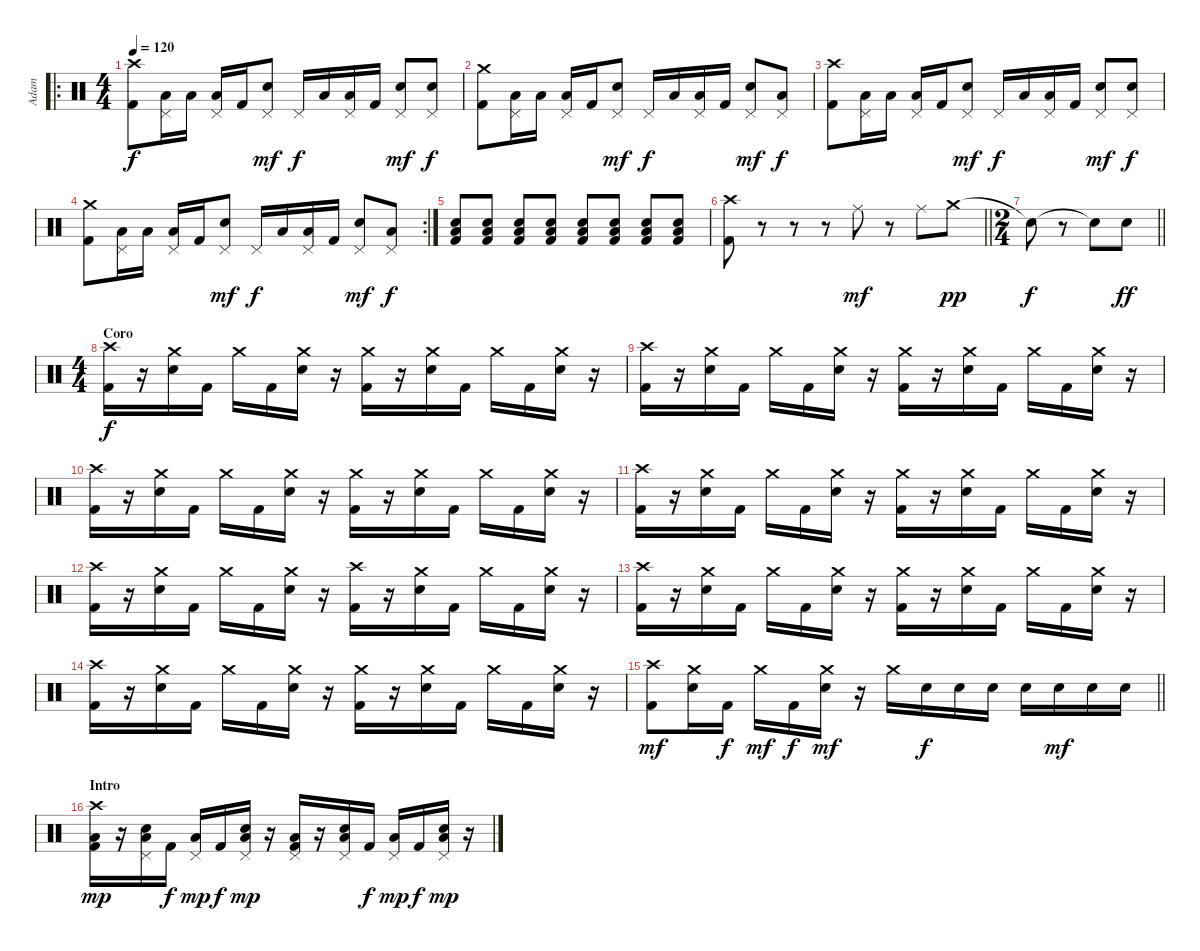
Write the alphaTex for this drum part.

\track ("Adam" "Adam") {instrument percussion}
\staff {score}
\articulation defaults
\ro
\ts (4 4)
\tempo 120
\clef neutral
\ks c
("Crash high (hit)" "Kick (hit) 2").8{dy f} ("Pedal Hi-Hat (hit)" "Low Floor Tom (hit)").16 "Low Floor Tom (hit)".16 ("Pedal Hi-Hat (hit)" "Low Tom (hit)").16 "Kick (hit) 2".16 ("Pedal Hi-Hat (hit)" "Snare (hit) 2").8{dy mf} "Pedal Hi-Hat (hit)".16{dy f} "Low Floor Tom (hit)".16 ("Pedal Hi-Hat (hit)" "Low Tom (hit)").16 "Kick (hit) 2".16 ("Pedal Hi-Hat (hit)" "Snare (hit) 2").8{dy mf} ("Pedal Hi-Hat (hit)" "Snare (hit) 2").8{dy f} |
("Crash medium (hit)" "Kick (hit) 2").8 ("Pedal Hi-Hat (hit)" "Low Floor Tom (hit)").16 "Low Floor Tom (hit)".16 ("Pedal Hi-Hat (hit)" "Low Tom (hit)").16 "Kick (hit) 2".16 ("Pedal Hi-Hat (hit)" "Snare (hit) 2").8{dy mf} "Pedal Hi-Hat (hit)".16{dy f} "Low Floor Tom (hit)".16 ("Pedal Hi-Hat (hit)" "Low Tom (hit)").16 "Kick (hit) 2".16 ("Pedal Hi-Hat (hit)" "Snare (hit) 2").8{dy mf} ("Pedal Hi-Hat (hit)" "Low Floor Tom (hit)").8{dy f} |
("Crash high (hit)" "Kick (hit) 2").8 ("Pedal Hi-Hat (hit)" "Low Floor Tom (hit)").16 "Low Floor Tom (hit)".16 ("Pedal Hi-Hat (hit)" "Low Tom (hit)").16 "Kick (hit) 2".16 ("Pedal Hi-Hat (hit)" "Snare (hit) 2").8{dy mf} "Pedal Hi-Hat (hit)".16{dy f} "Low Floor Tom (hit)".16 ("Pedal Hi-Hat (hit)" "Low Tom (hit)").16 "Kick (hit) 2".16 ("Pedal Hi-Hat (hit)" "Snare (hit) 2").8{dy mf} ("Pedal Hi-Hat (hit)" "Snare (hit) 2").8{dy f} |
\rc 2
("Crash medium (hit)" "Kick (hit) 2").8 ("Pedal Hi-Hat (hit)" "Low Floor Tom (hit)").16 "Low Floor Tom (hit)".16 ("Pedal Hi-Hat (hit)" "Low Tom (hit)").16 "Kick (hit) 2".16 ("Pedal Hi-Hat (hit)" "Snare (hit) 2").8{dy mf} "Pedal Hi-Hat (hit)".16{dy f} "Low Floor Tom (hit)".16 ("Pedal Hi-Hat (hit)" "Low Tom (hit)").16 "Kick (hit) 2".16 ("Pedal Hi-Hat (hit)" "Snare (hit) 2").8{dy mf} ("Pedal Hi-Hat (hit)" "Low Floor Tom (hit)").8{dy f} |
("Low Floor Tom (hit)" "Snare (hit) 2" "Kick (hit) 2").8 ("Low Floor Tom (hit)" "Snare (hit) 2" "Kick (hit) 2").8 ("Low Floor Tom (hit)" "Snare (hit) 2" "Kick (hit) 2").8 ("Low Floor Tom (hit)" "Snare (hit) 2" "Kick (hit) 2").8 ("Low Floor Tom (hit)" "Snare (hit) 2" "Kick (hit) 2").8 ("Low Floor Tom (hit)" "Snare (hit) 2" "Kick (hit) 2").8 ("Low Floor Tom (hit)" "Snare (hit) 2" "Kick (hit) 2").8 ("Low Floor Tom (hit)" "Snare (hit) 2" "Kick (hit) 2").8 |
\barLineRight lightlight
("Crash high (hit)" "Kick (hit) 2").8 r.8 r.8 r.8 "Ride (middle)".8{dy mf} r.8 "Ride (middle)".8 "Crash medium (hit)".8{dy pp} |
\ts (2 4)
\barLineRight lightlight "Snare (hit)"{t}.8{dy f}
r.8 "Snare (hit) 2"{t}.8 "Snare (hit) 2".8{dy ff} |
\ts (4 4)
\section ("" "Coro")
("Crash high (hit)" "Kick (hit) 2").16{dy f} r.16 ("Crash medium (hit)" "Snare (hit) 2").16 "Kick (hit) 2".16 "Crash medium (hit)".16 "Kick (hit) 2".16 ("Crash medium (hit)" "Snare (hit) 2").16 r.16 ("Crash medium (hit)" "Kick (hit) 2").16 r.16 ("Crash medium (hit)" "Snare (hit) 2").16 "Kick (hit) 2".16 "Crash medium (hit)".16 "Kick (hit) 2".16 ("Crash medium (hit)" "Snare (hit) 2").16 r.16 |
("Crash high (hit)" "Kick (hit) 2").16 r.16 ("Crash medium (hit)" "Snare (hit) 2").16 "Kick (hit) 2".16 "Crash medium (hit)".16 "Kick (hit) 2".16 ("Crash medium (hit)" "Snare (hit) 2").16 r.16 ("Crash medium (hit)" "Kick (hit) 2").16 r.16 ("Crash medium (hit)" "Snare (hit) 2").16 "Kick (hit) 2".16 "Crash medium (hit)".16 "Kick (hit) 2".16 ("Crash medium (hit)" "Snare (hit) 2").16 r.16 |
("Crash high (hit)" "Kick (hit) 2").16 r.16 ("Crash medium (hit)" "Snare (hit) 2").16 "Kick (hit) 2".16 "Crash medium (hit)".16 "Kick (hit) 2".16 ("Crash medium (hit)" "Snare (hit) 2").16 r.16 ("Crash medium (hit)" "Kick (hit) 2").16 r.16 ("Crash medium (hit)" "Snare (hit) 2").16 "Kick (hit) 2".16 "Crash medium (hit)".16 "Kick (hit) 2".16 ("Crash medium (hit)" "Snare (hit) 2").16 r.16 |
("Crash high (hit)" "Kick (hit) 2").16 r.16 ("Crash medium (hit)" "Snare (hit) 2").16 "Kick (hit) 2".16 "Crash medium (hit)".16 "Kick (hit) 2".16 ("Crash medium (hit)" "Snare (hit) 2").16 r.16 ("Crash medium (hit)" "Kick (hit) 2").16 r.16 ("Crash medium (hit)" "Snare (hit) 2").16 "Kick (hit) 2".16 "Crash medium (hit)".16 "Kick (hit) 2".16 ("Crash medium (hit)" "Snare (hit) 2").16 r.16 |
("Crash high (hit)" "Kick (hit) 2").16 r.16 ("Crash medium (hit)" "Snare (hit) 2").16 "Kick (hit) 2".16 "Crash medium (hit)".16 "Kick (hit) 2".16 ("Crash medium (hit)" "Snare (hit) 2").16 r.16 ("Crash high (hit)" "Kick (hit) 2").16 r.16 ("Crash medium (hit)" "Snare (hit) 2").16 "Kick (hit) 2".16 "Crash medium (hit)".16 "Kick (hit) 2".16 ("Crash medium (hit)" "Snare (hit) 2").16 r.16 |
("Crash high (hit)" "Kick (hit) 2").16 r.16 ("Crash medium (hit)" "Snare (hit) 2").16 "Kick (hit) 2".16 "Crash medium (hit)".16 "Kick (hit) 2".16 ("Crash medium (hit)" "Snare (hit) 2").16 r.16 ("Crash medium (hit)" "Kick (hit) 2").16 r.16 ("Crash medium (hit)" "Snare (hit) 2").16 "Kick (hit) 2".16 "Crash medium (hit)".16 "Kick (hit) 2".16 ("Crash medium (hit)" "Snare (hit) 2").16 r.16 |
("Crash high (hit)" "Kick (hit) 2").16 r.16 ("Crash medium (hit)" "Snare (hit) 2").16 "Kick (hit) 2".16 "Crash medium (hit)".16 "Kick (hit) 2".16 ("Crash medium (hit)" "Snare (hit) 2").16 r.16 ("Crash medium (hit)" "Kick (hit) 2").16 r.16 ("Crash medium (hit)" "Snare (hit) 2").16 "Kick (hit) 2".16 "Crash medium (hit)".16 "Kick (hit) 2".16 ("Crash medium (hit)" "Snare (hit) 2").16 r.16 |
\barLineRight lightlight
("Crash high (hit)" "Kick (hit) 2").8{dy mf} ("Crash medium (hit)" "Snare (hit) 2").16 "Kick (hit) 2".16{dy f} "Crash medium (hit)".16{dy mf} "Kick (hit) 2".16{dy f} ("Crash medium (hit)" "Snare (hit) 2").16{dy mf} r.16 "Crash medium (hit)".16 "Snare (hit) 2".16{dy f} "Snare (hit) 2".16 "Snare (hit) 2".16 "Snare (hit) 2".16 "Snare (hit) 2".16{dy mf} "Snare (hit) 2".16 "Snare (hit) 2".16 |
\section ("" "Intro")
("Crash high (hit)" "Low Floor Tom (hit)" "Kick (hit) 2").16{dy mp} r.16 ("Pedal Hi-Hat (hit)" "Low Floor Tom (hit)" "Snare (hit) 2").16 "Kick (hit) 2".16{dy f} ("Pedal Hi-Hat (hit)" "Low Floor Tom (hit)").16{dy mp} "Kick (hit) 2".16{dy f} ("Pedal Hi-Hat (hit)" "Low Floor Tom (hit)" "Snare (hit) 2").16{dy mp} r.16 ("Pedal Hi-Hat (hit)" "Low Floor Tom (hit)" "Kick (hit) 2").16 r.16 ("Pedal Hi-Hat (hit)" "Low Floor Tom (hit)" "Snare (hit) 2").16 "Kick (hit) 2".16{dy f} ("Pedal Hi-Hat (hit)" "Low Floor Tom (hit)").16{dy mp} "Kick (hit) 2".16{dy f} ("Pedal Hi-Hat (hit)" "Low Floor Tom (hit)" "Snare (hit) 2").16{dy mp} r.16
